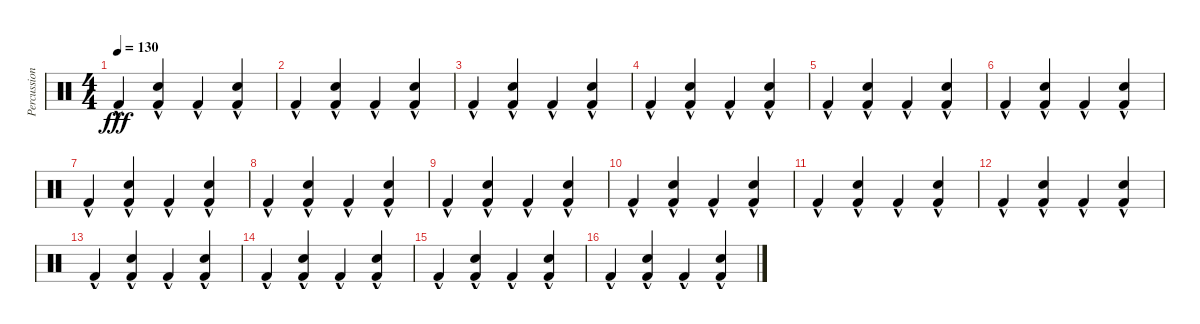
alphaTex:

\track ("Percussion" "Percussion") {instrument percussion}
\staff {score}
\articulation defaults
\ts (4 4)
\tempo 130
\clef neutral
\ks c "Kick (hit) 2"{hac}.4{dy fff}
("Kick (hit) 2"{hac} "Electric Snare (hit)"{hac}).4 "Kick (hit) 2"{hac}.4 ("Kick (hit) 2"{hac} "Electric Snare (hit)"{hac}).4 |
"Kick (hit) 2"{hac}.4 ("Kick (hit) 2"{hac} "Electric Snare (hit)"{hac}).4 "Kick (hit) 2"{hac}.4 ("Kick (hit) 2"{hac} "Electric Snare (hit)"{hac}).4 |
"Kick (hit) 2"{hac}.4 ("Kick (hit) 2"{hac} "Electric Snare (hit)"{hac}).4 "Kick (hit) 2"{hac}.4 ("Kick (hit) 2"{hac} "Electric Snare (hit)"{hac}).4 |
"Kick (hit) 2"{hac}.4 ("Kick (hit) 2"{hac} "Electric Snare (hit)"{hac}).4 "Kick (hit) 2"{hac}.4 ("Kick (hit) 2"{hac} "Electric Snare (hit)"{hac}).4 |
"Kick (hit) 2"{hac}.4 ("Kick (hit) 2"{hac} "Electric Snare (hit)"{hac}).4 "Kick (hit) 2"{hac}.4 ("Kick (hit) 2"{hac} "Electric Snare (hit)"{hac}).4 |
"Kick (hit) 2"{hac}.4 ("Kick (hit) 2"{hac} "Electric Snare (hit)"{hac}).4 "Kick (hit) 2"{hac}.4 ("Kick (hit) 2"{hac} "Electric Snare (hit)"{hac}).4 |
"Kick (hit) 2"{hac}.4 ("Kick (hit) 2"{hac} "Electric Snare (hit)"{hac}).4 "Kick (hit) 2"{hac}.4 ("Kick (hit) 2"{hac} "Electric Snare (hit)"{hac}).4 |
"Kick (hit) 2"{hac}.4 ("Kick (hit) 2"{hac} "Electric Snare (hit)"{hac}).4 "Kick (hit) 2"{hac}.4 ("Kick (hit) 2"{hac} "Electric Snare (hit)"{hac}).4 |
"Kick (hit) 2"{hac}.4 ("Kick (hit) 2"{hac} "Electric Snare (hit)"{hac}).4 "Kick (hit) 2"{hac}.4 ("Kick (hit) 2"{hac} "Electric Snare (hit)"{hac}).4 |
"Kick (hit) 2"{hac}.4 ("Kick (hit) 2"{hac} "Electric Snare (hit)"{hac}).4 "Kick (hit) 2"{hac}.4 ("Kick (hit) 2"{hac} "Electric Snare (hit)"{hac}).4 |
"Kick (hit) 2"{hac}.4 ("Kick (hit) 2"{hac} "Electric Snare (hit)"{hac}).4 "Kick (hit) 2"{hac}.4 ("Kick (hit) 2"{hac} "Electric Snare (hit)"{hac}).4 |
"Kick (hit) 2"{hac}.4 ("Kick (hit) 2"{hac} "Electric Snare (hit)"{hac}).4 "Kick (hit) 2"{hac}.4 ("Kick (hit) 2"{hac} "Electric Snare (hit)"{hac}).4 |
"Kick (hit) 2"{hac}.4 ("Kick (hit) 2"{hac} "Electric Snare (hit)"{hac}).4 "Kick (hit) 2"{hac}.4 ("Kick (hit) 2"{hac} "Electric Snare (hit)"{hac}).4 |
"Kick (hit) 2"{hac}.4 ("Kick (hit) 2"{hac} "Electric Snare (hit)"{hac}).4 "Kick (hit) 2"{hac}.4 ("Kick (hit) 2"{hac} "Electric Snare (hit)"{hac}).4 |
"Kick (hit) 2"{hac}.4 ("Kick (hit) 2"{hac} "Electric Snare (hit)"{hac}).4 "Kick (hit) 2"{hac}.4 ("Kick (hit) 2"{hac} "Electric Snare (hit)"{hac}).4 |
"Kick (hit) 2"{hac}.4 ("Kick (hit) 2"{hac} "Electric Snare (hit)"{hac}).4 "Kick (hit) 2"{hac}.4 ("Kick (hit) 2"{hac} "Electric Snare (hit)"{hac}).4
